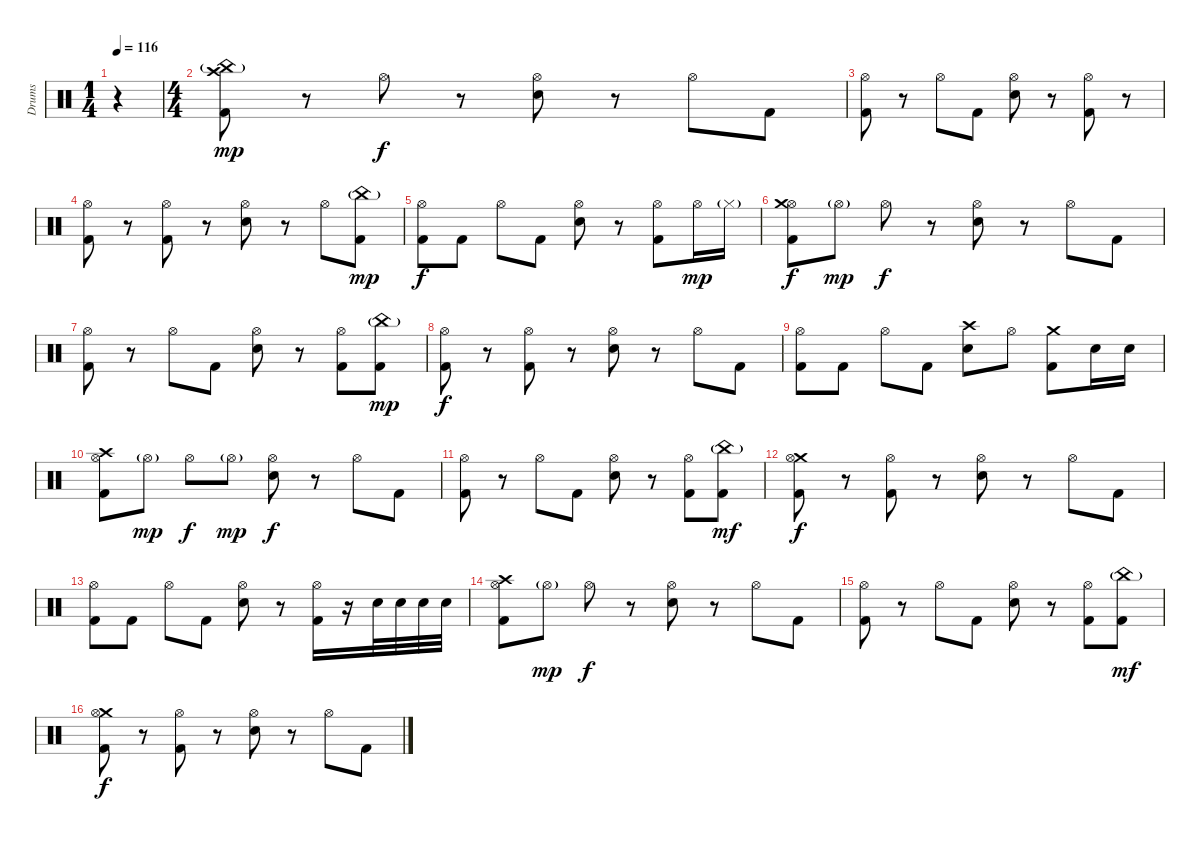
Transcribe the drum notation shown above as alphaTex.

\track ("Drums" "Drums") {instrument percussion}
\staff {score}
\articulation defaults
\ts (1 4)
\tempo 116
\clef neutral
\ks c
r.4{dy mp} |
\ts (4 4)
("Crash high (hit)" "China (hit)"{g} "Kick (hit) 2").8 r.8 "Hi-Hat (open)".8{dy f} r.8 ("Hi-Hat (open)" "Snare (hit) 2").8 r.8 "Hi-Hat (open)".8 "Kick (hit) 2".8 |
("Hi-Hat (open)" "Kick (hit) 2").8 r.8 "Hi-Hat (open)".8 "Kick (hit) 2".8 ("Hi-Hat (open)" "Snare (hit) 2").8 r.8 ("Hi-Hat (open)" "Kick (hit) 2").8 r.8 |
("Hi-Hat (open)" "Kick (hit) 2").8 r.8 ("Hi-Hat (open)" "Kick (hit) 2").8 r.8 ("Hi-Hat (open)" "Snare (hit) 2").8 r.8 "Hi-Hat (open)".8 ("China (hit)"{g} "Kick (hit) 2").8{dy mp} |
("Hi-Hat (open)" "Kick (hit) 2").8{dy f} "Kick (hit) 2".8 "Hi-Hat (open)".8 "Kick (hit) 2".8 ("Hi-Hat (open)" "Snare (hit) 2").8 r.8 ("Hi-Hat (open)" "Kick (hit) 2").8 "Hi-Hat (open)".16{dy mp} "Hi-Hat (closed)"{g}.16 |
("Hi-Hat (open)" "Crash medium (hit)" "Kick (hit) 2").8{dy f} "Hi-Hat (open)"{g}.8{dy mp} "Hi-Hat (open)".8{dy f} r.8 ("Hi-Hat (open)" "Snare (hit) 2").8 r.8 "Hi-Hat (open)".8 "Kick (hit) 2".8 |
("Hi-Hat (open)" "Kick (hit) 2").8 r.8 "Hi-Hat (open)".8 "Kick (hit) 2".8 ("Hi-Hat (open)" "Snare (hit) 2").8 r.8 ("Hi-Hat (open)" "Kick (hit) 2").8 ("China (hit)"{g} "Kick (hit) 2").8{dy mp} |
("Hi-Hat (open)" "Kick (hit) 2").8{dy f} r.8 ("Hi-Hat (open)" "Kick (hit) 2").8 r.8 ("Hi-Hat (open)" "Snare (hit) 2").8 r.8 "Hi-Hat (open)".8 "Kick (hit) 2".8 |
("Hi-Hat (open)" "Kick (hit) 2").8 "Kick (hit) 2".8 "Hi-Hat (open)".8 "Kick (hit) 2".8 ("Crash high (hit)" "Snare (hit) 2").8 "Hi-Hat (open)".8 ("Crash medium (hit)" "Kick (hit) 2").8 "Snare (hit) 2".16 "Snare (hit) 2".16 |
("Crash high (hit)" "Hi-Hat (open)" "Kick (hit) 2").8 "Hi-Hat (open)"{g}.8{dy mp} "Hi-Hat (open)".8{dy f} "Hi-Hat (open)"{g}.8{dy mp} ("Hi-Hat (open)" "Snare (hit) 2").8{dy f} r.8 "Hi-Hat (open)".8 "Kick (hit) 2".8 |
("Hi-Hat (open)" "Kick (hit) 2").8 r.8 "Hi-Hat (open)".8 "Kick (hit) 2".8 ("Hi-Hat (open)" "Snare (hit) 2").8 r.8 ("Hi-Hat (open)" "Kick (hit) 2").8 ("China (hit)"{g} "Kick (hit) 2").8{dy mf} |
("Crash medium (hit)" "Hi-Hat (open)" "Kick (hit) 2").8{dy f} r.8 ("Hi-Hat (open)" "Kick (hit) 2").8 r.8 ("Hi-Hat (open)" "Snare (hit) 2").8 r.8 "Hi-Hat (open)".8 "Kick (hit) 2".8 |
("Hi-Hat (open)" "Kick (hit) 2").8 "Kick (hit) 2".8 "Hi-Hat (open)".8 "Kick (hit) 2".8 ("Hi-Hat (open)" "Snare (hit) 2").8 r.8 ("Hi-Hat (open)" "Kick (hit) 2").16 r.16 "Snare (hit) 2".32 "Snare (hit) 2".32 "Snare (hit) 2".32 "Snare (hit) 2".32 |
("Crash high (hit)" "Hi-Hat (open)" "Kick (hit) 2").8 "Hi-Hat (open)"{g}.8{dy mp} "Hi-Hat (open)".8{dy f} r.8 ("Hi-Hat (open)" "Snare (hit) 2").8 r.8 "Hi-Hat (open)".8 "Kick (hit) 2".8 |
("Hi-Hat (open)" "Kick (hit) 2").8 r.8 "Hi-Hat (open)".8 "Kick (hit) 2".8 ("Hi-Hat (open)" "Snare (hit) 2").8 r.8 ("Hi-Hat (open)" "Kick (hit) 2").8 ("China (hit)"{g} "Kick (hit) 2").8{dy mf} |
("Crash medium (hit)" "Hi-Hat (open)" "Kick (hit) 2").8{dy f} r.8 ("Hi-Hat (open)" "Kick (hit) 2").8 r.8 ("Hi-Hat (open)" "Snare (hit) 2").8 r.8 "Hi-Hat (open)".8 "Kick (hit) 2".8
